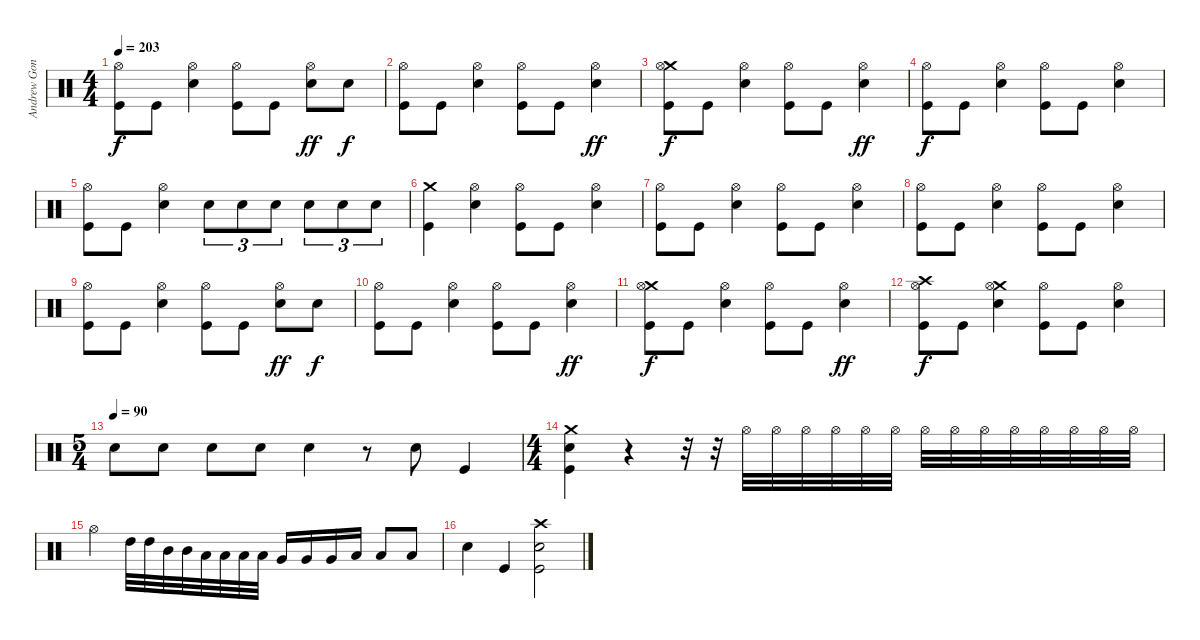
\track ("Andrew Gonzales" "Andrew Gon") {instrument percussion}
\staff {score}
\articulation defaults
\ts (4 4)
\tempo 203
\clef neutral
\ks c
("Hi-Hat (open)" "Kick (hit)").8{dy f} "Kick (hit)".8 ("Hi-Hat (open)" "Electric Snare (hit)").4 ("Hi-Hat (open)" "Kick (hit)").8 "Kick (hit)".8 ("Hi-Hat (open)" "Electric Snare (hit)").8{dy ff} "Electric Snare (hit)".8{dy f} |
("Hi-Hat (open)" "Kick (hit)").8 "Kick (hit)".8 ("Hi-Hat (open)" "Electric Snare (hit)").4 ("Hi-Hat (open)" "Kick (hit)").8 "Kick (hit)".8 ("Hi-Hat (open)" "Electric Snare (hit)").4{dy ff} |
("Crash medium (hit)" "Hi-Hat (open)" "Kick (hit)").8{dy f} "Kick (hit)".8 ("Hi-Hat (open)" "Electric Snare (hit)").4 ("Hi-Hat (open)" "Kick (hit)").8 "Kick (hit)".8 ("Hi-Hat (open)" "Electric Snare (hit)").4{dy ff} |
("Hi-Hat (open)" "Kick (hit)").8{dy f} "Kick (hit)".8 ("Hi-Hat (open)" "Electric Snare (hit)").4 ("Hi-Hat (open)" "Kick (hit)").8 "Kick (hit)".8 ("Hi-Hat (open)" "Electric Snare (hit)").4 |
("Hi-Hat (open)" "Kick (hit)").8 "Kick (hit)".8 ("Hi-Hat (open)" "Electric Snare (hit)").4 "Electric Snare (hit)".8{tu (3 2)} "Electric Snare (hit)".8{tu (3 2)} "Electric Snare (hit)".8{tu (3 2)} "Electric Snare (hit)".8{tu (3 2)} "Electric Snare (hit)".8{tu (3 2)} "Electric Snare (hit)".8{tu (3 2)} |
("Crash medium (hit)" "Kick (hit)").4 ("Hi-Hat (open)" "Electric Snare (hit)").4 ("Hi-Hat (open)" "Kick (hit)").8 "Kick (hit)".8 ("Hi-Hat (open)" "Electric Snare (hit)").4 |
("Hi-Hat (open)" "Kick (hit)").8 "Kick (hit)".8 ("Hi-Hat (open)" "Electric Snare (hit)").4 ("Hi-Hat (open)" "Kick (hit)").8 "Kick (hit)".8 ("Hi-Hat (open)" "Electric Snare (hit)").4 |
("Hi-Hat (open)" "Kick (hit)").8 "Kick (hit)".8 ("Hi-Hat (open)" "Electric Snare (hit)").4 ("Hi-Hat (open)" "Kick (hit)").8 "Kick (hit)".8 ("Hi-Hat (open)" "Electric Snare (hit)").4 |
("Hi-Hat (open)" "Kick (hit)").8 "Kick (hit)".8 ("Hi-Hat (open)" "Electric Snare (hit)").4 ("Hi-Hat (open)" "Kick (hit)").8 "Kick (hit)".8 ("Hi-Hat (open)" "Electric Snare (hit)").8{dy ff} "Electric Snare (hit)".8{dy f} |
("Hi-Hat (open)" "Kick (hit)").8 "Kick (hit)".8 ("Hi-Hat (open)" "Electric Snare (hit)").4 ("Hi-Hat (open)" "Kick (hit)").8 "Kick (hit)".8 ("Hi-Hat (open)" "Electric Snare (hit)").4{dy ff} |
("Crash medium (hit)" "Hi-Hat (open)" "Kick (hit)").8{dy f} "Kick (hit)".8 ("Hi-Hat (open)" "Electric Snare (hit)").4 ("Hi-Hat (open)" "Kick (hit)").8 "Kick (hit)".8 ("Hi-Hat (open)" "Electric Snare (hit)").4{dy ff} |
("Crash high (hit)" "Hi-Hat (open)" "Kick (hit)").8{dy f} "Kick (hit)".8 ("Crash medium (hit)" "Hi-Hat (open)" "Electric Snare (hit)").4 ("Hi-Hat (open)" "Kick (hit)").8 "Kick (hit)".8 ("Hi-Hat (open)" "Electric Snare (hit)").4 |
\ts (5 4)
\tempo (90)
"Electric Snare (hit)".8 "Electric Snare (hit)".8 "Electric Snare (hit)".8 "Electric Snare (hit)".8 "Electric Snare (hit)".4 r.8 "Electric Snare (hit)".8 "Kick (hit)".4 |
\ts (4 4)
("Crash medium (hit)" "Electric Snare (hit)" "Kick (hit)").4 r.4 r.32 r.32 "Hi-Hat (open)".32{volume 6} "Hi-Hat (open)".32{volume 12} "Hi-Hat (open)".32 "Hi-Hat (open)".32 "Hi-Hat (open)".32 "Hi-Hat (open)".32 "Hi-Hat (open)".32 "Hi-Hat (open)".32 "Hi-Hat (open)".32 "Hi-Hat (open)".32 "Hi-Hat (open)".32 "Hi-Hat (open)".32 "Hi-Hat (open)".32 "Hi-Hat (open)".32 |
"Hi-Hat (open)".4 "High Tom (hit)".32{volume 7} "High Tom (hit)".32{volume 7} "Mid Tom (hit)".32{volume 7} "Mid Tom (hit)".32{volume 7} "Low Tom (hit)".32{volume 7} "Low Tom (hit)".32 "Low Tom (hit)".32 "Low Tom (hit)".32 "Very Low Tom (hit)".16 "Very Low Tom (hit)".16 "Very Low Tom (hit)".16 "Low Floor Tom (hit)".16 "Low Floor Tom (hit)".8 "Low Floor Tom (hit)".8 |
"Electric Snare (hit)".4{volume 12} "Kick (hit)".4 ("Crash high (hit)" "Electric Snare (hit)" "Kick (hit)").2
